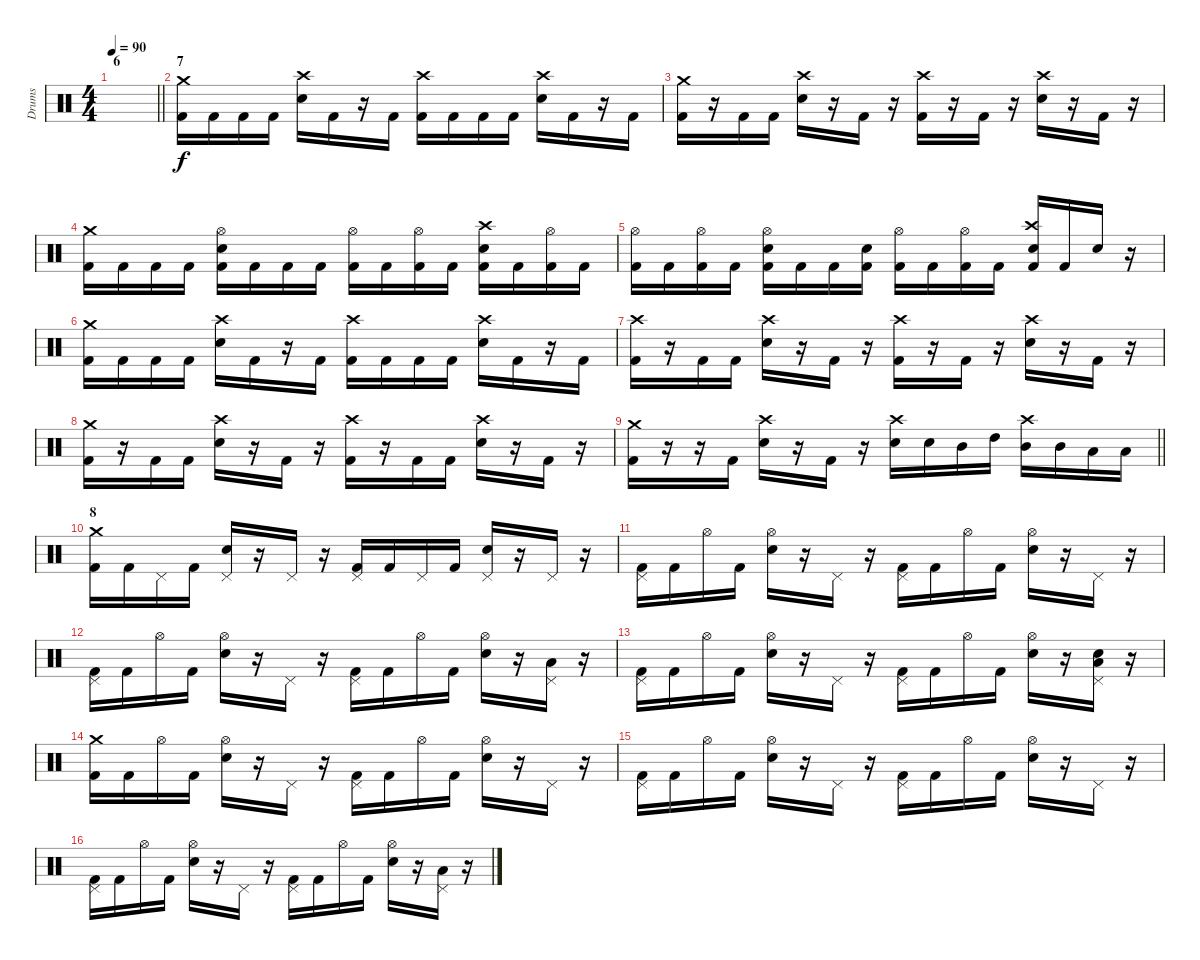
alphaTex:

\track ("Drums" "Drums") {instrument percussion}
\staff {score}
\articulation defaults
\ts (4 4)
\section ("" "6")
\tempo 90
\clef neutral
\barLineRight lightlight
\ks c
|
\section ("" "7")
("Crash medium (hit)" "Kick (hit) 2").16{dy f} "Kick (hit) 2".16 "Kick (hit) 2".16 "Kick (hit) 2".16 ("Crash high (hit)" "Electric Snare (hit)").16 "Kick (hit) 2".16 r.16 "Kick (hit) 2".16 ("Crash high (hit)" "Kick (hit) 2").16 "Kick (hit) 2".16 "Kick (hit) 2".16 "Kick (hit) 2".16 ("Crash high (hit)" "Electric Snare (hit)").16 "Kick (hit) 2".16 r.16 "Kick (hit) 2".16 |
("Crash medium (hit)" "Kick (hit) 2").16 r.16 "Kick (hit) 2".16 "Kick (hit) 2".16 ("Crash high (hit)" "Electric Snare (hit)").16 r.16 "Kick (hit) 2".16 r.16 ("Crash high (hit)" "Kick (hit) 2").16 r.16 "Kick (hit) 2".16 r.16 ("Crash high (hit)" "Electric Snare (hit)").16 r.16 "Kick (hit) 2".16 r.16 |
("Crash medium (hit)" "Kick (hit) 2").16 "Kick (hit) 2".16 "Kick (hit) 2".16 "Kick (hit) 2".16 ("Hi-Hat (open)" "Electric Snare (hit)" "Kick (hit) 2").16 "Kick (hit) 2".16 "Kick (hit) 2".16 "Kick (hit) 2".16 ("Hi-Hat (open)" "Kick (hit) 2").16 "Kick (hit) 2".16 ("Hi-Hat (open)" "Kick (hit) 2").16 "Kick (hit) 2".16 ("Crash high (hit)" "Electric Snare (hit)" "Kick (hit) 2").16 "Kick (hit) 2".16 ("Hi-Hat (open)" "Kick (hit) 2").16 "Kick (hit) 2".16 |
("Hi-Hat (open)" "Kick (hit) 2").16 "Kick (hit) 2".16 ("Hi-Hat (open)" "Kick (hit) 2").16 "Kick (hit) 2".16 ("Hi-Hat (open)" "Electric Snare (hit)" "Kick (hit) 2").16 "Kick (hit) 2".16 "Kick (hit) 2".16 ("Electric Snare (hit)" "Kick (hit) 2").16 ("Hi-Hat (open)" "Kick (hit) 2").16 "Kick (hit) 2".16 ("Hi-Hat (open)" "Kick (hit) 2").16 "Kick (hit) 2".16 ("Crash high (hit)" "Electric Snare (hit)" "Kick (hit) 2").16 "Kick (hit) 2".16 "Electric Snare (hit)".16 r.16 |
("Crash medium (hit)" "Kick (hit) 2").16 "Kick (hit) 2".16 "Kick (hit) 2".16 "Kick (hit) 2".16 ("Crash high (hit)" "Electric Snare (hit)").16 "Kick (hit) 2".16 r.16 "Kick (hit) 2".16 ("Crash high (hit)" "Kick (hit) 2").16 "Kick (hit) 2".16 "Kick (hit) 2".16 "Kick (hit) 2".16 ("Crash high (hit)" "Electric Snare (hit)").16 "Kick (hit) 2".16 r.16 "Kick (hit) 2".16 |
("Crash high (hit)" "Kick (hit) 2").16 r.16 "Kick (hit) 2".16 "Kick (hit) 2".16 ("Crash high (hit)" "Electric Snare (hit)").16 r.16 "Kick (hit) 2".16 r.16 ("Crash high (hit)" "Kick (hit) 2").16 r.16 "Kick (hit) 2".16 r.16 ("Crash high (hit)" "Electric Snare (hit)").16 r.16 "Kick (hit) 2".16 r.16 |
("Crash medium (hit)" "Kick (hit) 2").16 r.16 "Kick (hit) 2".16 "Kick (hit) 2".16 ("Crash high (hit)" "Electric Snare (hit)").16 r.16 "Kick (hit) 2".16 r.16 ("Crash high (hit)" "Kick (hit) 2").16 r.16 "Kick (hit) 2".16 "Kick (hit) 2".16 ("Crash high (hit)" "Electric Snare (hit)").16 r.16 "Kick (hit) 2".16 r.16 |
\barLineRight lightlight
("Crash medium (hit)" "Kick (hit) 2").16 r.16 r.16 "Kick (hit) 2".16 ("Crash high (hit)" "Electric Snare (hit)").16 r.16 "Kick (hit) 2".16 r.16 ("Crash high (hit)" "Electric Snare (hit)").16 "Electric Snare (hit)".16 "Mid Tom (hit)".16 "High Tom (hit)".16 ("Crash high (hit)" "Mid Tom (hit)").16 "Mid Tom (hit)".16 "Low Tom (hit)".16 "Low Tom (hit)".16 |
\section ("" "8")
("Crash medium (hit)" "Kick (hit) 2").16 "Kick (hit) 2".16 "Pedal Hi-Hat (hit)".16 "Kick (hit) 2".16 ("Pedal Hi-Hat (hit)" "Electric Snare (hit)").16 r.16 "Pedal Hi-Hat (hit)".16 r.16 ("Pedal Hi-Hat (hit)" "Kick (hit) 2").16 "Kick (hit) 2".16 "Pedal Hi-Hat (hit)".16 "Kick (hit) 2".16 ("Pedal Hi-Hat (hit)" "Electric Snare (hit)").16 r.16 "Pedal Hi-Hat (hit)".16 r.16 |
("Pedal Hi-Hat (hit)" "Kick (hit) 2").16 "Kick (hit) 2".16 "Hi-Hat (open)".16 "Kick (hit) 2".16 ("Hi-Hat (open)" "Electric Snare (hit)").16 r.16 "Pedal Hi-Hat (hit)".16 r.16 ("Pedal Hi-Hat (hit)" "Kick (hit) 2").16 "Kick (hit) 2".16 "Hi-Hat (open)".16 "Kick (hit) 2".16 ("Hi-Hat (open)" "Electric Snare (hit)").16 r.16 "Pedal Hi-Hat (hit)".16 r.16 |
("Pedal Hi-Hat (hit)" "Kick (hit) 2").16 "Kick (hit) 2".16 "Hi-Hat (open)".16 "Kick (hit) 2".16 ("Hi-Hat (open)" "Electric Snare (hit)").16 r.16 "Pedal Hi-Hat (hit)".16 r.16 ("Pedal Hi-Hat (hit)" "Kick (hit) 2").16 "Kick (hit) 2".16 "Hi-Hat (open)".16 "Kick (hit) 2".16 ("Hi-Hat (open)" "Electric Snare (hit)").16 r.16 ("Pedal Hi-Hat (hit)" "Low Tom (hit)").16 r.16 |
("Pedal Hi-Hat (hit)" "Kick (hit) 2").16 "Kick (hit) 2".16 "Hi-Hat (open)".16 "Kick (hit) 2".16 ("Hi-Hat (open)" "Electric Snare (hit)").16 r.16 "Pedal Hi-Hat (hit)".16 r.16 ("Pedal Hi-Hat (hit)" "Kick (hit) 2").16 "Kick (hit) 2".16 "Hi-Hat (open)".16 "Kick (hit) 2".16 ("Hi-Hat (open)" "Electric Snare (hit)").16 r.16 ("Pedal Hi-Hat (hit)" "Electric Snare (hit)" "Low Tom (hit)").16 r.16 |
("Crash medium (hit)" "Kick (hit) 2").16 "Kick (hit) 2".16 "Hi-Hat (open)".16 "Kick (hit) 2".16 ("Hi-Hat (open)" "Electric Snare (hit)").16 r.16 "Pedal Hi-Hat (hit)".16 r.16 ("Pedal Hi-Hat (hit)" "Kick (hit) 2").16 "Kick (hit) 2".16 "Hi-Hat (open)".16 "Kick (hit) 2".16 ("Hi-Hat (open)" "Electric Snare (hit)").16 r.16 "Pedal Hi-Hat (hit)".16 r.16 |
("Pedal Hi-Hat (hit)" "Kick (hit) 2").16 "Kick (hit) 2".16 "Hi-Hat (open)".16 "Kick (hit) 2".16 ("Hi-Hat (open)" "Electric Snare (hit)").16 r.16 "Pedal Hi-Hat (hit)".16 r.16 ("Pedal Hi-Hat (hit)" "Kick (hit) 2").16 "Kick (hit) 2".16 "Hi-Hat (open)".16 "Kick (hit) 2".16 ("Hi-Hat (open)" "Electric Snare (hit)").16 r.16 "Pedal Hi-Hat (hit)".16 r.16 |
("Pedal Hi-Hat (hit)" "Kick (hit) 2").16 "Kick (hit) 2".16 "Hi-Hat (open)".16 "Kick (hit) 2".16 ("Hi-Hat (open)" "Electric Snare (hit)").16 r.16 "Pedal Hi-Hat (hit)".16 r.16 ("Pedal Hi-Hat (hit)" "Kick (hit) 2").16 "Kick (hit) 2".16 "Hi-Hat (open)".16 "Kick (hit) 2".16 ("Hi-Hat (open)" "Electric Snare (hit)").16 r.16 ("Pedal Hi-Hat (hit)" "Low Tom (hit)").16 r.16
